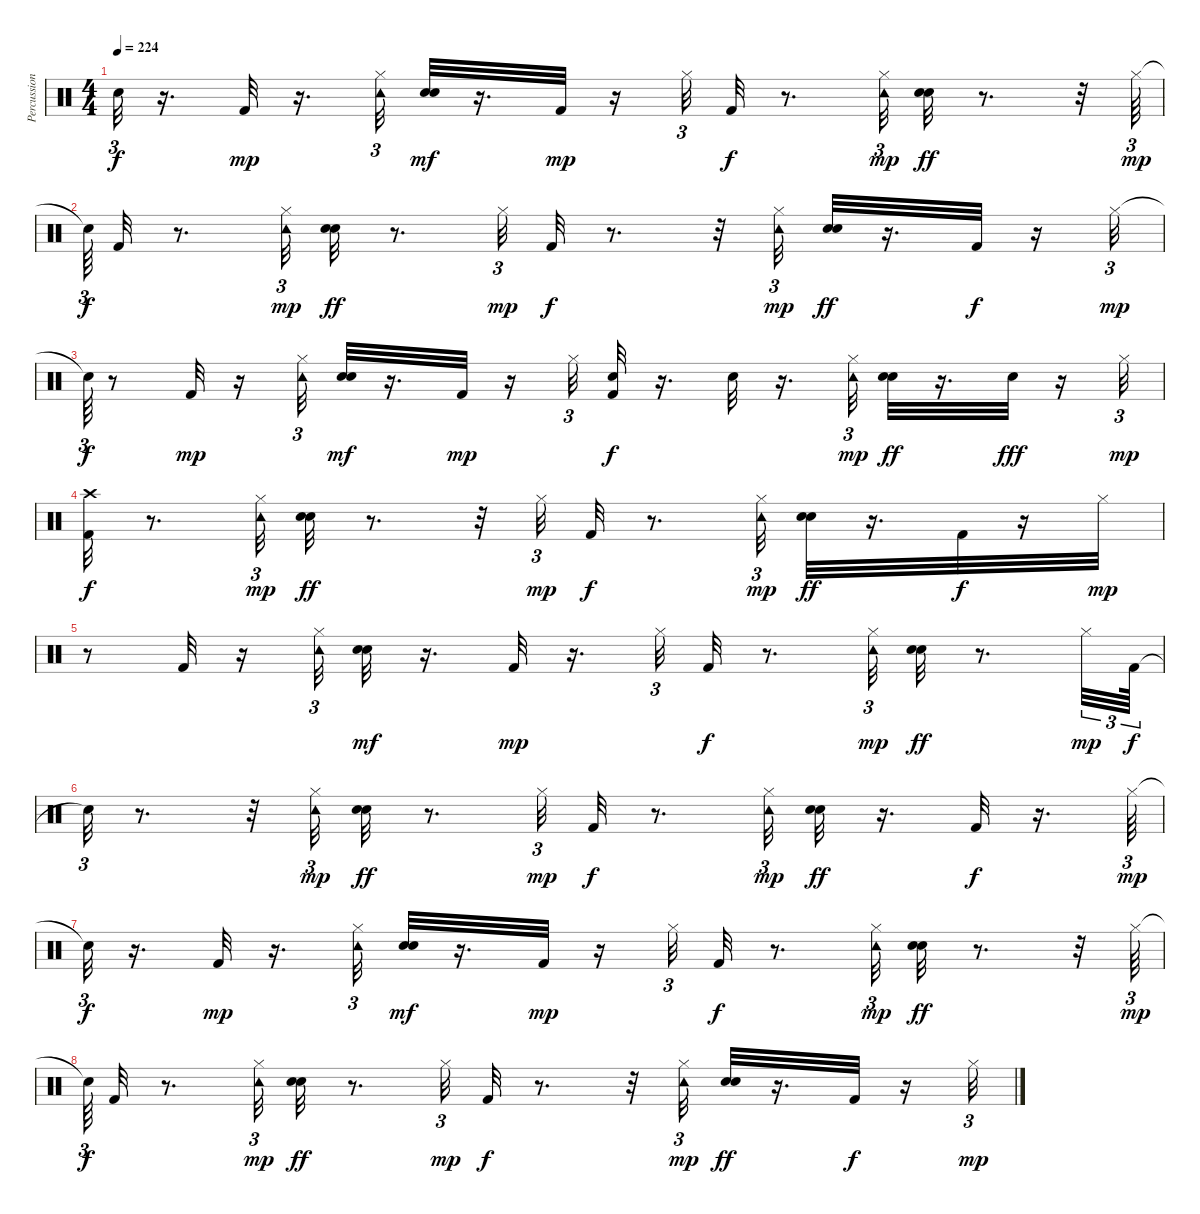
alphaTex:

\track ("Percussion" "Percussion") {instrument percussion}
\staff {score}
\articulation defaults
\ts (4 4)
\tempo 224
\clef neutral
\ks c "Snare (hit)"{t}.32{tu (3 2) dy f}
r.16{d} "Kick (hit) 2".32{dy mp} r.16{d} ("Tambourine (hit)" "Hi-Hat (closed)").32{tu (3 2)} ("Hand Clap (hit)" "Snare (hit) 2").32{dy mf} r.16{d} "Kick (hit) 2".32{dy mp} r.16 "Hi-Hat (closed)".32{tu (3 2)} "Kick (hit) 2".32{dy f} r.8{d} ("Tambourine (hit)" "Hi-Hat (closed)").32{tu (3 2) dy mp} ("Hand Clap (hit)" "Snare (hit) 2").32{dy ff} r.8{d} r.32 "Hi-Hat (closed)".64{tu (3 2) dy mp} |
"Snare (hit)"{t}.64{tu (3 2) dy f} "Kick (hit) 2".32 r.8{d} ("Tambourine (hit)" "Hi-Hat (closed)").32{tu (3 2) dy mp} ("Hand Clap (hit)" "Snare (hit) 2").32{dy ff} r.8{d} "Hi-Hat (closed)".32{tu (3 2) dy mp} "Kick (hit) 2".32{dy f} r.8{d} r.32 ("Tambourine (hit)" "Hi-Hat (closed)").32{tu (3 2) dy mp} ("Hand Clap (hit)" "Snare (hit) 2").32{dy ff} r.16{d} "Kick (hit) 2".32{dy f} r.16 "Hi-Hat (closed)".32{tu (3 2) dy mp} |
"Snare (hit)"{t}.64{tu (3 2) dy f} r.8 "Kick (hit) 2".32{dy mp} r.16 ("Tambourine (hit)" "Hi-Hat (closed)").32{tu (3 2)} ("Hand Clap (hit)" "Snare (hit) 2").32{dy mf} r.16{d} "Kick (hit) 2".32{dy mp} r.16 "Hi-Hat (closed)".32{tu (3 2)} ("Kick (hit) 2" "Snare (hit) 2").32{dy f} r.16{d} "Snare (hit) 2".32 r.16{d} ("Tambourine (hit)" "Hi-Hat (closed)").32{tu (3 2) dy mp} ("Hand Clap (hit)" "Snare (hit) 2").32{dy ff} r.16{d} "Snare (hit) 2".32{dy fff} r.16 "Hi-Hat (closed)".32{tu (3 2) dy mp} |
("Kick (hit) 2" "Crash high (hit)").32{dy f} r.8{d} ("Tambourine (hit)" "Hi-Hat (closed)").32{tu (3 2) dy mp} ("Hand Clap (hit)" "Snare (hit) 2").32{dy ff} r.8{d} r.32 "Hi-Hat (closed)".32{tu (3 2) dy mp} "Kick (hit) 2".32{dy f} r.8{d} ("Tambourine (hit)" "Hi-Hat (closed)").32{tu (3 2) dy mp} ("Hand Clap (hit)" "Snare (hit) 2").32{dy ff} r.16{d} "Kick (hit) 2".32{dy f} r.16 "Hi-Hat (closed)".32{dy mp} |
r.8 "Kick (hit) 2".32 r.16 ("Tambourine (hit)" "Hi-Hat (closed)").32{tu (3 2)} ("Hand Clap (hit)" "Snare (hit) 2").32{dy mf} r.16{d} "Kick (hit) 2".32{dy mp} r.16{d} "Hi-Hat (closed)".32{tu (3 2)} "Kick (hit) 2".32{dy f} r.8{d} ("Tambourine (hit)" "Hi-Hat (closed)").32{tu (3 2) dy mp} ("Hand Clap (hit)" "Snare (hit) 2").32{dy ff} r.8{d} "Hi-Hat (closed)".32{tu (3 2) dy mp} "Kick (hit) 2".64{tu (3 2) dy f} |
"Snare (hit)"{t}.32{tu (3 2)} r.8{d} r.32 ("Tambourine (hit)" "Hi-Hat (closed)").32{tu (3 2) dy mp} ("Hand Clap (hit)" "Snare (hit) 2").32{dy ff} r.8{d} "Hi-Hat (closed)".32{tu (3 2) dy mp} "Kick (hit) 2".32{dy f} r.8{d} ("Tambourine (hit)" "Hi-Hat (closed)").32{tu (3 2) dy mp} ("Hand Clap (hit)" "Snare (hit) 2").32{dy ff} r.16{d} "Kick (hit) 2".32{dy f} r.16{d} "Hi-Hat (closed)".64{tu (3 2) dy mp} |
"Snare (hit)"{t}.32{tu (3 2) dy f} r.16{d} "Kick (hit) 2".32{dy mp} r.16{d} ("Tambourine (hit)" "Hi-Hat (closed)").32{tu (3 2)} ("Hand Clap (hit)" "Snare (hit) 2").32{dy mf} r.16{d} "Kick (hit) 2".32{dy mp} r.16 "Hi-Hat (closed)".32{tu (3 2)} "Kick (hit) 2".32{dy f} r.8{d} ("Tambourine (hit)" "Hi-Hat (closed)").32{tu (3 2) dy mp} ("Hand Clap (hit)" "Snare (hit) 2").32{dy ff} r.8{d} r.32 "Hi-Hat (closed)".64{tu (3 2) dy mp} |
"Snare (hit)"{t}.64{tu (3 2) dy f} "Kick (hit) 2".32 r.8{d} ("Tambourine (hit)" "Hi-Hat (closed)").32{tu (3 2) dy mp} ("Hand Clap (hit)" "Snare (hit) 2").32{dy ff} r.8{d} "Hi-Hat (closed)".32{tu (3 2) dy mp} "Kick (hit) 2".32{dy f} r.8{d} r.32 ("Tambourine (hit)" "Hi-Hat (closed)").32{tu (3 2) dy mp} ("Hand Clap (hit)" "Snare (hit) 2").32{dy ff} r.16{d} "Kick (hit) 2".32{dy f} r.16 "Hi-Hat (closed)".32{tu (3 2) dy mp}
